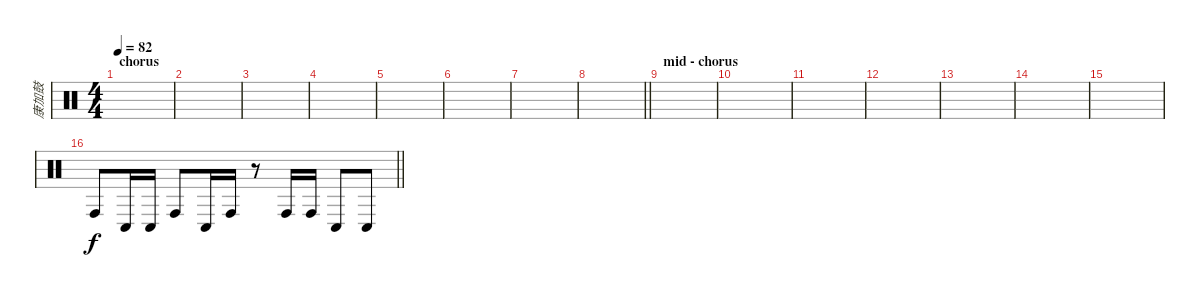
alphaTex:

\track ("康加鼓" "康加鼓") {instrument percussion}
\staff {score}
\articulation defaults
\ts (4 4)
\section ("" "chorus")
\tempo 82
\clef neutral
\ks c
|
|
|
|
|
|
|
\barLineRight lightlight
|
\section ("" "mid - chorus")
|
|
|
|
|
|
|
\barLineRight lightlight "Conga high (hit)".8 "Conga low (hit)".16 "Conga low (hit)".16 "Conga high (hit)".8 "Conga low (hit)".16 "Conga high (hit)".16
r.8 "Conga high (hit)".16 "Conga high (hit)".16 "Conga low (hit)".8 "Conga low (hit)".8
